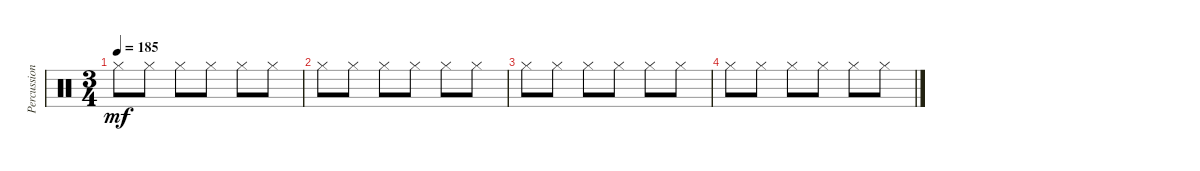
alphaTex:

\track ("Percussion" "Percussion") {instrument percussion}
\staff {score}
\articulation defaults
\ts (3 4)
\tempo 185
\clef neutral
\ks c "Hi-Hat (closed)".8{dy mf} "Hi-Hat (closed)".8 "Hi-Hat (closed)".8 "Hi-Hat (closed)".8 "Hi-Hat (closed)".8 "Hi-Hat (closed)".8
|
"Hi-Hat (closed)".8 "Hi-Hat (closed)".8 "Hi-Hat (closed)".8 "Hi-Hat (closed)".8 "Hi-Hat (closed)".8 "Hi-Hat (closed)".8 |
"Hi-Hat (closed)".8 "Hi-Hat (closed)".8 "Hi-Hat (closed)".8 "Hi-Hat (closed)".8 "Hi-Hat (closed)".8 "Hi-Hat (closed)".8 |
"Hi-Hat (closed)".8 "Hi-Hat (closed)".8 "Hi-Hat (closed)".8 "Hi-Hat (closed)".8 "Hi-Hat (closed)".8 "Hi-Hat (closed)".8
